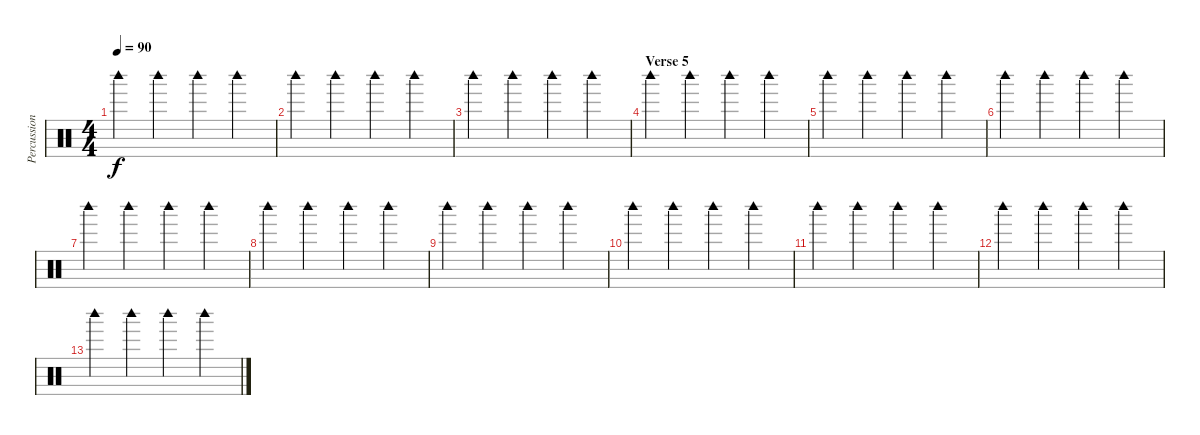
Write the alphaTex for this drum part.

\track ("Percussion" "Percussion") {instrument percussion}
\staff {score}
\articulation defaults
\ts (4 4)
\tempo 90
\clef neutral
\ks c "Woodblock high (hit)".4{dy f} "Woodblock high (hit)".4 "Woodblock high (hit)".4 "Woodblock high (hit)".4
|
"Woodblock high (hit)".4 "Woodblock high (hit)".4 "Woodblock high (hit)".4 "Woodblock high (hit)".4 |
"Woodblock high (hit)".4 "Woodblock high (hit)".4 "Woodblock high (hit)".4 "Woodblock high (hit)".4 |
\section ("" "Verse 5")
"Woodblock high (hit)".4 "Woodblock high (hit)".4 "Woodblock high (hit)".4 "Woodblock high (hit)".4 |
"Woodblock high (hit)".4 "Woodblock high (hit)".4 "Woodblock high (hit)".4 "Woodblock high (hit)".4 |
"Woodblock high (hit)".4 "Woodblock high (hit)".4 "Woodblock high (hit)".4 "Woodblock high (hit)".4 |
"Woodblock high (hit)".4 "Woodblock high (hit)".4 "Woodblock high (hit)".4 "Woodblock high (hit)".4 |
"Woodblock high (hit)".4 "Woodblock high (hit)".4 "Woodblock high (hit)".4 "Woodblock high (hit)".4 |
"Woodblock high (hit)".4 "Woodblock high (hit)".4 "Woodblock high (hit)".4 "Woodblock high (hit)".4 |
"Woodblock high (hit)".4 "Woodblock high (hit)".4 "Woodblock high (hit)".4 "Woodblock high (hit)".4 |
"Woodblock high (hit)".4 "Woodblock high (hit)".4 "Woodblock high (hit)".4 "Woodblock high (hit)".4 |
"Woodblock high (hit)".4 "Woodblock high (hit)".4 "Woodblock high (hit)".4 "Woodblock high (hit)".4 |
"Woodblock high (hit)".4 "Woodblock high (hit)".4 "Woodblock high (hit)".4 "Woodblock high (hit)".4
